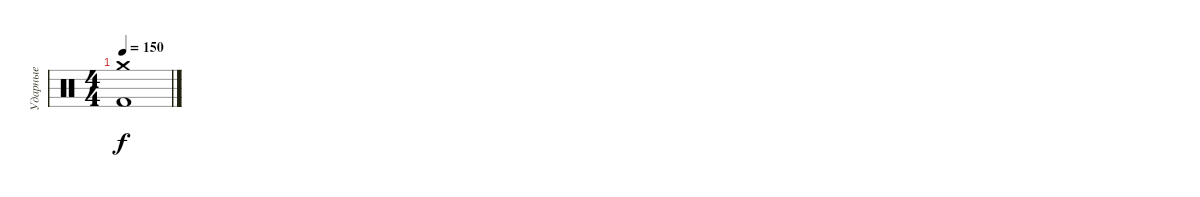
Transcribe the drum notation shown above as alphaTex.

\track ("Ударные" "Ударные") {instrument percussion}
\staff {score}
\articulation defaults
\ts (4 4)
\tempo 150
\clef neutral
\ks c
("Crash medium (hit)"{t} "Kick (hit) 2"{t}).1{dy f}
